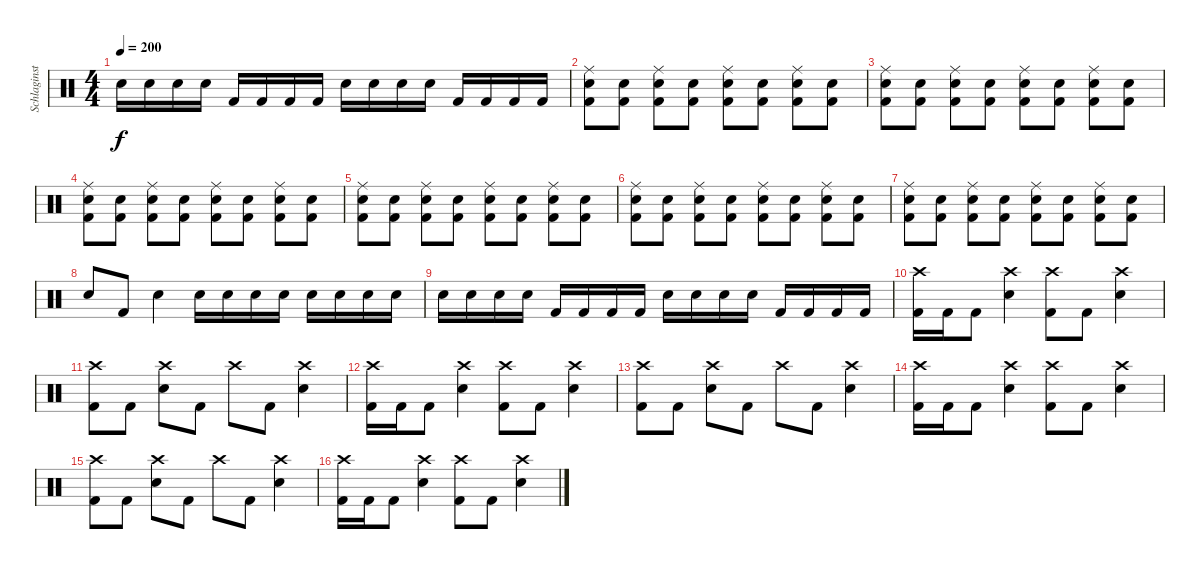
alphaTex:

\track ("Schlaginstrumente - Auswahl" "Schlaginst") {instrument percussion}
\staff {score}
\articulation defaults
\ts (4 4)
\tempo 200
\clef neutral
\ks c "Snare (hit) 2".16{dy f} "Snare (hit) 2".16 "Snare (hit) 2".16 "Snare (hit) 2".16 "Kick (hit) 2".16 "Kick (hit) 2".16 "Kick (hit) 2".16 "Kick (hit) 2".16 "Snare (hit) 2".16 "Snare (hit) 2".16 "Snare (hit) 2".16 "Snare (hit) 2".16 "Kick (hit) 2".16 "Kick (hit) 2".16 "Kick (hit) 2".16 "Kick (hit) 2".16
|
("Ride (middle)" "Snare (hit) 2" "Kick (hit) 2").8 ("Snare (hit) 2" "Kick (hit) 2").8 ("Ride (middle)" "Snare (hit) 2" "Kick (hit) 2").8 ("Snare (hit) 2" "Kick (hit) 2").8 ("Ride (middle)" "Snare (hit) 2" "Kick (hit) 2").8 ("Snare (hit) 2" "Kick (hit) 2").8 ("Ride (middle)" "Snare (hit) 2" "Kick (hit) 2").8 ("Snare (hit) 2" "Kick (hit) 2").8 |
("Ride (middle)" "Snare (hit) 2" "Kick (hit) 2").8 ("Snare (hit) 2" "Kick (hit) 2").8 ("Ride (middle)" "Snare (hit) 2" "Kick (hit) 2").8 ("Snare (hit) 2" "Kick (hit) 2").8 ("Ride (middle)" "Snare (hit) 2" "Kick (hit) 2").8 ("Snare (hit) 2" "Kick (hit) 2").8 ("Ride (middle)" "Snare (hit) 2" "Kick (hit) 2").8 ("Snare (hit) 2" "Kick (hit) 2").8 |
("Ride (middle)" "Snare (hit) 2" "Kick (hit) 2").8 ("Snare (hit) 2" "Kick (hit) 2").8 ("Ride (middle)" "Snare (hit) 2" "Kick (hit) 2").8 ("Snare (hit) 2" "Kick (hit) 2").8 ("Ride (middle)" "Snare (hit) 2" "Kick (hit) 2").8 ("Snare (hit) 2" "Kick (hit) 2").8 ("Ride (middle)" "Snare (hit) 2" "Kick (hit) 2").8 ("Snare (hit) 2" "Kick (hit) 2").8 |
("Ride (middle)" "Snare (hit) 2" "Kick (hit) 2").8 ("Snare (hit) 2" "Kick (hit) 2").8 ("Ride (middle)" "Snare (hit) 2" "Kick (hit) 2").8 ("Snare (hit) 2" "Kick (hit) 2").8 ("Ride (middle)" "Snare (hit) 2" "Kick (hit) 2").8 ("Snare (hit) 2" "Kick (hit) 2").8 ("Ride (middle)" "Snare (hit) 2" "Kick (hit) 2").8 ("Snare (hit) 2" "Kick (hit) 2").8 |
("Ride (middle)" "Snare (hit) 2" "Kick (hit) 2").8 ("Snare (hit) 2" "Kick (hit) 2").8 ("Ride (middle)" "Snare (hit) 2" "Kick (hit) 2").8 ("Snare (hit) 2" "Kick (hit) 2").8 ("Ride (middle)" "Snare (hit) 2" "Kick (hit) 2").8 ("Snare (hit) 2" "Kick (hit) 2").8 ("Ride (middle)" "Snare (hit) 2" "Kick (hit) 2").8 ("Snare (hit) 2" "Kick (hit) 2").8 |
("Ride (middle)" "Snare (hit) 2" "Kick (hit) 2").8 ("Snare (hit) 2" "Kick (hit) 2").8 ("Ride (middle)" "Snare (hit) 2" "Kick (hit) 2").8 ("Snare (hit) 2" "Kick (hit) 2").8 ("Ride (middle)" "Snare (hit) 2" "Kick (hit) 2").8 ("Snare (hit) 2" "Kick (hit) 2").8 ("Ride (middle)" "Snare (hit) 2" "Kick (hit) 2").8 ("Snare (hit) 2" "Kick (hit) 2").8 |
"Snare (hit) 2".8 "Kick (hit) 2".8 "Snare (hit) 2".4 "Snare (hit) 2".16 "Snare (hit) 2".16 "Snare (hit) 2".16 "Snare (hit) 2".16 "Snare (hit) 2".16 "Snare (hit) 2".16 "Snare (hit) 2".16 "Snare (hit) 2".16 |
"Snare (hit) 2".16 "Snare (hit) 2".16 "Snare (hit) 2".16 "Snare (hit) 2".16 "Kick (hit) 2".16 "Kick (hit) 2".16 "Kick (hit) 2".16 "Kick (hit) 2".16 "Snare (hit) 2".16 "Snare (hit) 2".16 "Snare (hit) 2".16 "Snare (hit) 2".16 "Kick (hit) 2".16 "Kick (hit) 2".16 "Kick (hit) 2".16 "Kick (hit) 2".16 |
("Crash high (hit)" "Kick (hit) 2").16 "Kick (hit) 2".16 "Kick (hit) 2".8 ("Crash high (hit)" "Snare (hit) 2").4 ("Crash high (hit)" "Kick (hit) 2").8 "Kick (hit) 2".8 ("Crash high (hit)" "Snare (hit) 2").4 |
("Crash high (hit)" "Kick (hit) 2").8 "Kick (hit) 2".8 ("Crash high (hit)" "Snare (hit) 2").8 "Kick (hit) 2".8 "Crash high (hit)".8 "Kick (hit) 2".8 ("Crash high (hit)" "Snare (hit) 2").4 |
("Crash high (hit)" "Kick (hit) 2").16 "Kick (hit) 2".16 "Kick (hit) 2".8 ("Crash high (hit)" "Snare (hit) 2").4 ("Crash high (hit)" "Kick (hit) 2").8 "Kick (hit) 2".8 ("Crash high (hit)" "Snare (hit) 2").4 |
("Crash high (hit)" "Kick (hit) 2").8 "Kick (hit) 2".8 ("Crash high (hit)" "Snare (hit) 2").8 "Kick (hit) 2".8 "Crash high (hit)".8 "Kick (hit) 2".8 ("Crash high (hit)" "Snare (hit) 2").4 |
("Crash high (hit)" "Kick (hit) 2").16 "Kick (hit) 2".16 "Kick (hit) 2".8 ("Crash high (hit)" "Snare (hit) 2").4 ("Crash high (hit)" "Kick (hit) 2").8 "Kick (hit) 2".8 ("Crash high (hit)" "Snare (hit) 2").4 |
("Crash high (hit)" "Kick (hit) 2").8 "Kick (hit) 2".8 ("Crash high (hit)" "Snare (hit) 2").8 "Kick (hit) 2".8 "Crash high (hit)".8 "Kick (hit) 2".8 ("Crash high (hit)" "Snare (hit) 2").4 |
("Crash high (hit)" "Kick (hit) 2").16 "Kick (hit) 2".16 "Kick (hit) 2".8 ("Crash high (hit)" "Snare (hit) 2").4 ("Crash high (hit)" "Kick (hit) 2").8 "Kick (hit) 2".8 ("Crash high (hit)" "Snare (hit) 2").4
